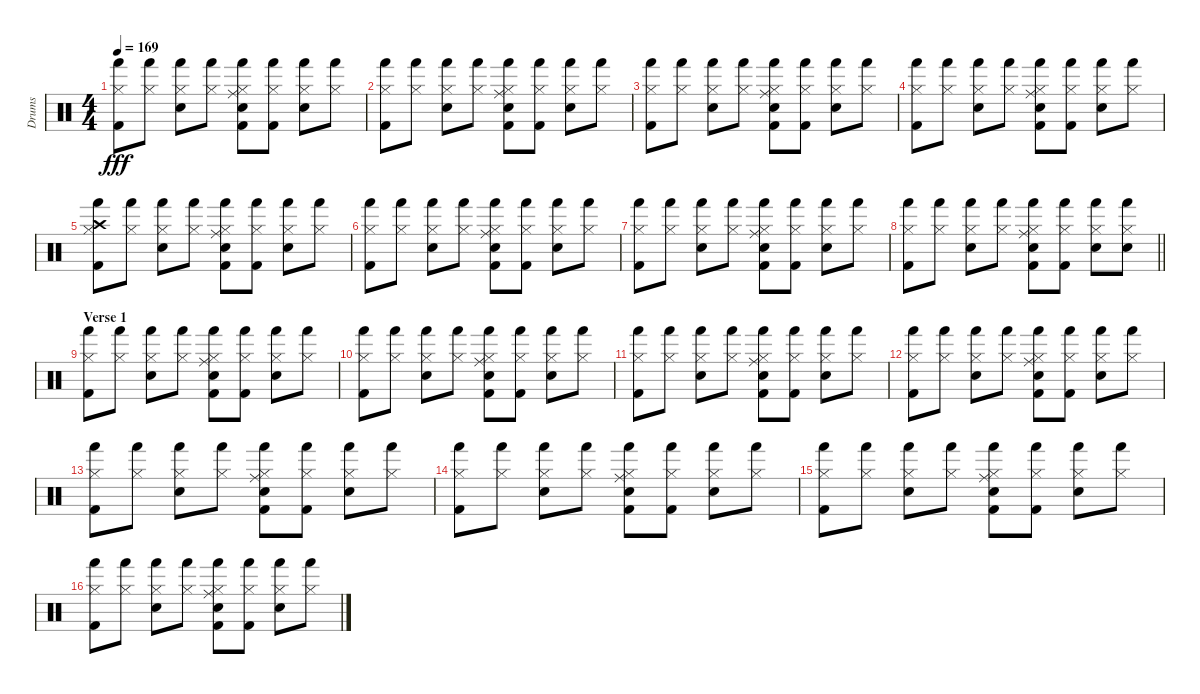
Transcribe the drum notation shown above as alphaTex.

\track ("Drums" "Drums") {instrument percussion}
\staff {score}
\articulation defaults
\ts (4 4)
\tempo 169
\clef neutral
\ks c
("Kick (hit) 2" "Hand (hit)" "Hi-Hat (closed)").8{dy fff} ("Hand (hit)" "Hi-Hat (closed)").8 ("Snare (hit) 2" "Hand (hit)" "Hi-Hat (closed)").8 ("Hand (hit)" "Hi-Hat (closed)").8 ("Kick (hit) 2" "Hand (hit)" "Electric Snare (hit)" "Ride (middle)" "Hi-Hat (closed)").8 ("Kick (hit) 2" "Hand (hit)" "Hi-Hat (closed)").8 ("Snare (hit) 2" "Hand (hit)" "Hi-Hat (closed)").8 ("Hand (hit)" "Hi-Hat (closed)").8 |
("Kick (hit) 2" "Hand (hit)" "Hi-Hat (closed)").8 ("Hand (hit)" "Hi-Hat (closed)").8 ("Snare (hit) 2" "Hand (hit)" "Hi-Hat (closed)").8 ("Hand (hit)" "Hi-Hat (closed)").8 ("Kick (hit) 2" "Hand (hit)" "Ride (middle)" "Electric Snare (hit)" "Hi-Hat (closed)").8 ("Kick (hit) 2" "Hand (hit)" "Hi-Hat (closed)").8 ("Snare (hit) 2" "Hand (hit)" "Hi-Hat (closed)").8 ("Hand (hit)" "Hi-Hat (closed)").8 |
("Kick (hit) 2" "Hand (hit)" "Hi-Hat (closed)").8 ("Hand (hit)" "Hi-Hat (closed)").8 ("Snare (hit) 2" "Hand (hit)" "Hi-Hat (closed)").8 ("Hand (hit)" "Hi-Hat (closed)").8 ("Kick (hit) 2" "Hand (hit)" "Electric Snare (hit)" "Ride (middle)" "Hi-Hat (closed)").8 ("Kick (hit) 2" "Hand (hit)" "Hi-Hat (closed)").8 ("Snare (hit) 2" "Hand (hit)" "Hi-Hat (closed)").8 ("Hand (hit)" "Hi-Hat (closed)").8 |
("Kick (hit) 2" "Hand (hit)" "Hi-Hat (closed)").8 ("Hand (hit)" "Hi-Hat (closed)").8 ("Snare (hit) 2" "Hand (hit)" "Hi-Hat (closed)").8 ("Hand (hit)" "Hi-Hat (closed)").8 ("Kick (hit) 2" "Hand (hit)" "Ride (middle)" "Electric Snare (hit)" "Hi-Hat (closed)").8 ("Kick (hit) 2" "Hand (hit)" "Hi-Hat (closed)").8 ("Snare (hit) 2" "Hand (hit)" "Hi-Hat (closed)").8 ("Hand (hit)" "Hi-Hat (closed)").8 |
("Kick (hit) 2" "Hand (hit)" "Hi-Hat (closed)" "Crash high (hit)").8 ("Hand (hit)" "Hi-Hat (closed)").8 ("Snare (hit) 2" "Hand (hit)" "Hi-Hat (closed)").8 ("Hand (hit)" "Hi-Hat (closed)").8 ("Kick (hit) 2" "Hand (hit)" "Electric Snare (hit)" "Ride (middle)" "Hi-Hat (closed)").8 ("Kick (hit) 2" "Hand (hit)" "Hi-Hat (closed)").8 ("Snare (hit) 2" "Hand (hit)" "Hi-Hat (closed)").8 ("Hand (hit)" "Hi-Hat (closed)").8 |
("Kick (hit) 2" "Hand (hit)" "Hi-Hat (closed)").8 ("Hand (hit)" "Hi-Hat (closed)").8 ("Snare (hit) 2" "Hand (hit)" "Hi-Hat (closed)").8 ("Hand (hit)" "Hi-Hat (closed)").8 ("Kick (hit) 2" "Hand (hit)" "Ride (middle)" "Electric Snare (hit)" "Hi-Hat (closed)").8 ("Kick (hit) 2" "Hand (hit)" "Hi-Hat (closed)").8 ("Snare (hit) 2" "Hand (hit)" "Hi-Hat (closed)").8 ("Hand (hit)" "Hi-Hat (closed)").8 |
("Kick (hit) 2" "Hand (hit)" "Hi-Hat (closed)").8 ("Hand (hit)" "Hi-Hat (closed)").8 ("Snare (hit) 2" "Hand (hit)" "Hi-Hat (closed)").8 ("Hand (hit)" "Hi-Hat (closed)").8 ("Kick (hit) 2" "Hand (hit)" "Electric Snare (hit)" "Ride (middle)" "Hi-Hat (closed)").8 ("Kick (hit) 2" "Hand (hit)" "Hi-Hat (closed)").8 ("Snare (hit) 2" "Hand (hit)" "Hi-Hat (closed)").8 ("Hand (hit)" "Hi-Hat (closed)").8 |
\barLineRight lightlight
("Kick (hit) 2" "Hand (hit)" "Hi-Hat (closed)").8 ("Hand (hit)" "Hi-Hat (closed)").8 ("Snare (hit) 2" "Hand (hit)" "Hi-Hat (closed)").8 ("Hand (hit)" "Hi-Hat (closed)").8 ("Kick (hit) 2" "Hand (hit)" "Ride (middle)" "Electric Snare (hit)" "Hi-Hat (closed)").8 ("Kick (hit) 2" "Hand (hit)" "Hi-Hat (closed)").8 ("Snare (hit) 2" "Hand (hit)" "Hi-Hat (closed)").8 ("Snare (hit) 2" "Hand (hit)" "Hi-Hat (closed)").8 |
\section ("" "Verse 1")
("Kick (hit) 2" "Hand (hit)" "Hi-Hat (closed)").8 ("Hand (hit)" "Hi-Hat (closed)").8 ("Snare (hit) 2" "Hand (hit)" "Hi-Hat (closed)").8 ("Hand (hit)" "Hi-Hat (closed)").8 ("Kick (hit) 2" "Hand (hit)" "Electric Snare (hit)" "Ride (middle)" "Hi-Hat (closed)").8 ("Kick (hit) 2" "Hand (hit)" "Hi-Hat (closed)").8 ("Snare (hit) 2" "Hand (hit)" "Hi-Hat (closed)").8 ("Hand (hit)" "Hi-Hat (closed)").8 |
("Kick (hit) 2" "Hand (hit)" "Hi-Hat (closed)").8 ("Hand (hit)" "Hi-Hat (closed)").8 ("Snare (hit) 2" "Hand (hit)" "Hi-Hat (closed)").8 ("Hand (hit)" "Hi-Hat (closed)").8 ("Kick (hit) 2" "Hand (hit)" "Ride (middle)" "Electric Snare (hit)" "Hi-Hat (closed)").8 ("Kick (hit) 2" "Hand (hit)" "Hi-Hat (closed)").8 ("Snare (hit) 2" "Hand (hit)" "Hi-Hat (closed)").8 ("Hand (hit)" "Hi-Hat (closed)").8 |
("Kick (hit) 2" "Hand (hit)" "Hi-Hat (closed)").8 ("Hand (hit)" "Hi-Hat (closed)").8 ("Snare (hit) 2" "Hand (hit)" "Hi-Hat (closed)").8 ("Hand (hit)" "Hi-Hat (closed)").8 ("Kick (hit) 2" "Hand (hit)" "Electric Snare (hit)" "Ride (middle)" "Hi-Hat (closed)").8 ("Kick (hit) 2" "Hand (hit)" "Hi-Hat (closed)").8 ("Snare (hit) 2" "Hand (hit)" "Hi-Hat (closed)").8 ("Hand (hit)" "Hi-Hat (closed)").8 |
("Kick (hit) 2" "Hand (hit)" "Hi-Hat (closed)").8 ("Hand (hit)" "Hi-Hat (closed)").8 ("Snare (hit) 2" "Hand (hit)" "Hi-Hat (closed)").8 ("Hand (hit)" "Hi-Hat (closed)").8 ("Kick (hit) 2" "Hand (hit)" "Ride (middle)" "Electric Snare (hit)" "Hi-Hat (closed)").8 ("Kick (hit) 2" "Hand (hit)" "Hi-Hat (closed)").8 ("Snare (hit) 2" "Hand (hit)" "Hi-Hat (closed)").8 ("Hand (hit)" "Hi-Hat (closed)").8 |
("Kick (hit) 2" "Hand (hit)" "Hi-Hat (closed)").8 ("Hand (hit)" "Hi-Hat (closed)").8 ("Snare (hit) 2" "Hand (hit)" "Hi-Hat (closed)").8 ("Hand (hit)" "Hi-Hat (closed)").8 ("Kick (hit) 2" "Hand (hit)" "Electric Snare (hit)" "Ride (middle)" "Hi-Hat (closed)").8 ("Kick (hit) 2" "Hand (hit)" "Hi-Hat (closed)").8 ("Snare (hit) 2" "Hand (hit)" "Hi-Hat (closed)").8 ("Hand (hit)" "Hi-Hat (closed)").8 |
("Kick (hit) 2" "Hand (hit)" "Hi-Hat (closed)").8 ("Hand (hit)" "Hi-Hat (closed)").8 ("Snare (hit) 2" "Hand (hit)" "Hi-Hat (closed)").8 ("Hand (hit)" "Hi-Hat (closed)").8 ("Kick (hit) 2" "Hand (hit)" "Ride (middle)" "Electric Snare (hit)" "Hi-Hat (closed)").8 ("Kick (hit) 2" "Hand (hit)" "Hi-Hat (closed)").8 ("Snare (hit) 2" "Hand (hit)" "Hi-Hat (closed)").8 ("Hand (hit)" "Hi-Hat (closed)").8 |
("Kick (hit) 2" "Hand (hit)" "Hi-Hat (closed)").8 ("Hand (hit)" "Hi-Hat (closed)").8 ("Snare (hit) 2" "Hand (hit)" "Hi-Hat (closed)").8 ("Hand (hit)" "Hi-Hat (closed)").8 ("Kick (hit) 2" "Hand (hit)" "Electric Snare (hit)" "Ride (middle)" "Hi-Hat (closed)").8 ("Kick (hit) 2" "Hand (hit)" "Hi-Hat (closed)").8 ("Snare (hit) 2" "Hand (hit)" "Hi-Hat (closed)").8 ("Hand (hit)" "Hi-Hat (closed)").8 |
("Kick (hit) 2" "Hand (hit)" "Hi-Hat (closed)").8 ("Hand (hit)" "Hi-Hat (closed)").8 ("Snare (hit) 2" "Hand (hit)" "Hi-Hat (closed)").8 ("Hand (hit)" "Hi-Hat (closed)").8 ("Kick (hit) 2" "Hand (hit)" "Ride (middle)" "Electric Snare (hit)" "Hi-Hat (closed)").8 ("Kick (hit) 2" "Hand (hit)" "Hi-Hat (closed)").8 ("Snare (hit) 2" "Hand (hit)" "Hi-Hat (closed)").8 ("Hand (hit)" "Hi-Hat (closed)").8
